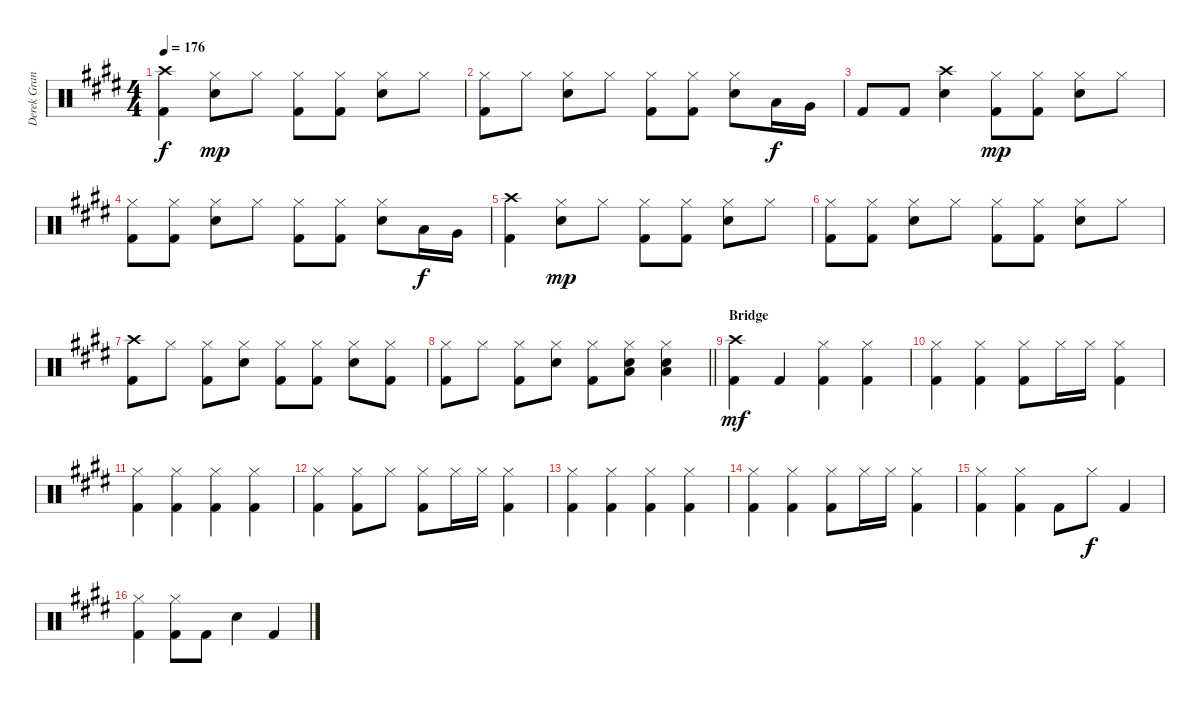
\track ("Derek Grant - Drums" "Derek Gran") {instrument percussion}
\staff {score}
\articulation defaults
\ts (4 4)
\tempo 176
\clef neutral
\ks e
("Crash high (hit)" "Kick (hit) 2").4{dy f} ("Hi-Hat (closed)" "Snare (hit) 2").8{dy mp} "Hi-Hat (closed)".8 ("Hi-Hat (closed)" "Kick (hit) 2").8 ("Hi-Hat (closed)" "Kick (hit) 2").8 ("Hi-Hat (closed)" "Snare (hit) 2").8 "Hi-Hat (closed)".8 |
("Hi-Hat (closed)" "Kick (hit) 2").8 "Hi-Hat (closed)".8 ("Hi-Hat (closed)" "Snare (hit) 2").8 "Hi-Hat (closed)".8 ("Hi-Hat (closed)" "Kick (hit) 2").8 ("Hi-Hat (closed)" "Kick (hit) 2").8 ("Hi-Hat (closed)" "Snare (hit) 2").8 "Low Tom (hit)".16{dy f} "Very Low Tom (hit)".16 |
"Kick (hit) 2".8 "Kick (hit) 2".8 ("Snare (hit) 2" "Crash high (hit)").4 ("Kick (hit) 2" "Hi-Hat (closed)").8{dy mp} ("Kick (hit) 2" "Hi-Hat (closed)").8 ("Snare (hit) 2" "Hi-Hat (closed)").8 "Hi-Hat (closed)".8 |
("Kick (hit) 2" "Hi-Hat (closed)").8 ("Kick (hit) 2" "Hi-Hat (closed)").8 ("Snare (hit) 2" "Hi-Hat (closed)").8 "Hi-Hat (closed)".8 ("Hi-Hat (closed)" "Kick (hit) 2").8 ("Hi-Hat (closed)" "Kick (hit) 2").8 ("Hi-Hat (closed)" "Snare (hit) 2").8 "Low Tom (hit)".16{dy f} "Very Low Tom (hit)".16 |
("Kick (hit) 2" "Crash high (hit)").4 ("Snare (hit) 2" "Hi-Hat (closed)").8{dy mp} "Hi-Hat (closed)".8 ("Hi-Hat (closed)" "Kick (hit) 2").8 ("Hi-Hat (closed)" "Kick (hit) 2").8 ("Hi-Hat (closed)" "Snare (hit) 2").8 "Hi-Hat (closed)".8 |
("Hi-Hat (closed)" "Kick (hit) 2").8 ("Hi-Hat (closed)" "Kick (hit) 2").8 ("Hi-Hat (closed)" "Snare (hit) 2").8 "Hi-Hat (closed)".8 ("Hi-Hat (closed)" "Kick (hit) 2").8 ("Hi-Hat (closed)" "Kick (hit) 2").8 ("Hi-Hat (closed)" "Snare (hit) 2").8 "Hi-Hat (closed)".8 |
("Kick (hit) 2" "Crash high (hit)").8 "Hi-Hat (closed)".8 ("Hi-Hat (closed)" "Kick (hit) 2").8 ("Snare (hit) 2" "Hi-Hat (closed)").8 ("Hi-Hat (closed)" "Kick (hit) 2").8 ("Hi-Hat (closed)" "Kick (hit) 2").8 ("Hi-Hat (closed)" "Snare (hit) 2").8 ("Hi-Hat (closed)" "Kick (hit) 2").8 |
\barLineRight lightlight
("Hi-Hat (closed)" "Kick (hit) 2").8 "Hi-Hat (closed)".8 ("Hi-Hat (closed)" "Kick (hit) 2").8 ("Snare (hit) 2" "Hi-Hat (closed)").8 ("Hi-Hat (closed)" "Kick (hit) 2").8 ("Hi-Hat (closed)" "Snare (hit) 2" "Low Floor Tom (hit)").8 ("Hi-Hat (closed)" "Snare (hit) 2" "Low Floor Tom (hit)").4 |
\section ("" "Bridge")
("Crash high (hit)" "Kick (hit) 2").4{dy mf} "Kick (hit) 2".4 ("Kick (hit) 2" "Hi-Hat (closed)").4 ("Kick (hit) 2" "Hi-Hat (closed)").4 |
("Hi-Hat (closed)" "Kick (hit) 2").4 ("Hi-Hat (closed)" "Kick (hit) 2").4 ("Hi-Hat (closed)" "Kick (hit) 2").8 "Hi-Hat (closed)".16 "Hi-Hat (closed)".16 ("Hi-Hat (closed)" "Kick (hit) 2").4 |
("Hi-Hat (closed)" "Kick (hit) 2").4 ("Hi-Hat (closed)" "Kick (hit) 2").4 ("Hi-Hat (closed)" "Kick (hit) 2").4 ("Hi-Hat (closed)" "Kick (hit) 2").4 |
("Hi-Hat (closed)" "Kick (hit) 2").4 ("Hi-Hat (closed)" "Kick (hit) 2").8 "Hi-Hat (closed)".8 ("Hi-Hat (closed)" "Kick (hit) 2").8 "Hi-Hat (closed)".16 "Hi-Hat (closed)".16 ("Hi-Hat (closed)" "Kick (hit) 2").4 |
("Hi-Hat (closed)" "Kick (hit) 2").4 ("Hi-Hat (closed)" "Kick (hit) 2").4 ("Hi-Hat (closed)" "Kick (hit) 2").4 ("Hi-Hat (closed)" "Kick (hit) 2").4 |
("Hi-Hat (closed)" "Kick (hit) 2").4 ("Hi-Hat (closed)" "Kick (hit) 2").4 ("Hi-Hat (closed)" "Kick (hit) 2").8 "Hi-Hat (closed)".16 "Hi-Hat (closed)".16 ("Hi-Hat (closed)" "Kick (hit) 2").4 |
("Hi-Hat (closed)" "Kick (hit) 2").4 ("Hi-Hat (closed)" "Kick (hit) 2").4 "Kick (hit) 2".8 "Hi-Hat (closed)".8{dy f} "Kick (hit) 2".4 |
("Kick (hit) 2" "Hi-Hat (closed)").4 ("Kick (hit) 2" "Hi-Hat (closed)").8 "Kick (hit) 2".8 "Snare (hit) 2".4 "Kick (hit) 2".4
